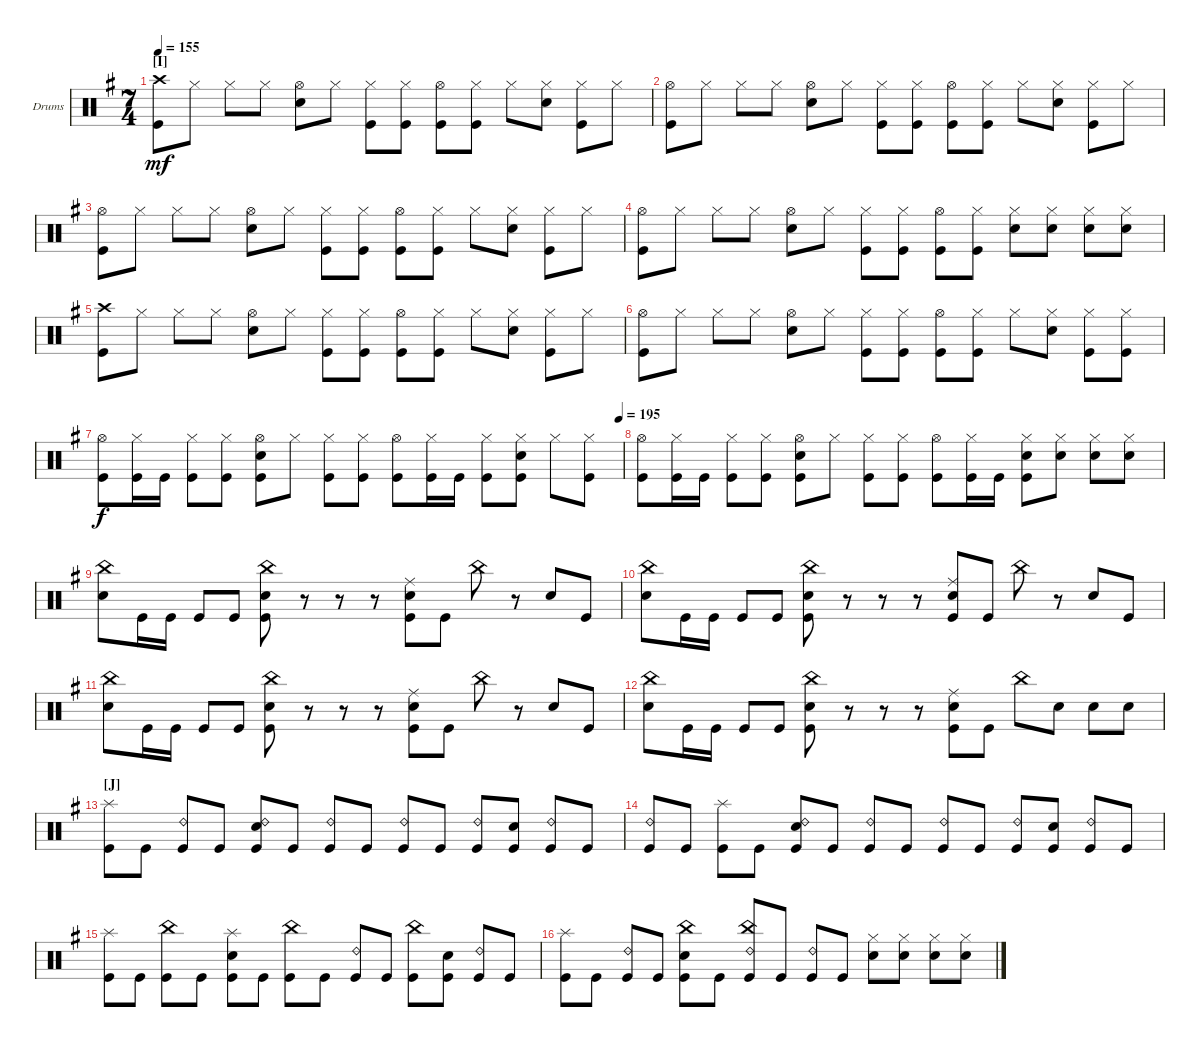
\defaultSystemsLayout 4
\bracketExtendMode groupsimilarinstruments
\firstSystemTrackNameOrientation horizontal
\otherSystemsTrackNameOrientation horizontal
\track ("Drumkit" "Drums") {instrument percussion}
\staff {score}
\articulation defaults
\ts (7 4)
\section ("I" "")
\tempo 155
\clef neutral
\ks eminor
("Crash high (hit)" "Kick (hit)").8{dy mf} "Hi-Hat (closed)".8 "Hi-Hat (closed)".8 "Hi-Hat (closed)".8 ("Hi-Hat (open)" "Snare (hit) 2").8 "Hi-Hat (closed)".8 ("Hi-Hat (closed)" "Kick (hit)").8 ("Hi-Hat (closed)" "Kick (hit)").8 ("Hi-Hat (open)" "Kick (hit)").8 ("Hi-Hat (closed)" "Kick (hit)").8 "Hi-Hat (closed)".8 ("Hi-Hat (closed)" "Snare (hit) 2").8 ("Hi-Hat (closed)" "Kick (hit)").8 "Hi-Hat (closed)".8 |
("Kick (hit)" "Hi-Hat (open)").8 "Hi-Hat (closed)".8 "Hi-Hat (closed)".8 "Hi-Hat (closed)".8 ("Hi-Hat (open)" "Snare (hit) 2").8 "Hi-Hat (closed)".8 ("Hi-Hat (closed)" "Kick (hit)").8 ("Hi-Hat (closed)" "Kick (hit)").8 ("Hi-Hat (open)" "Kick (hit)").8 ("Hi-Hat (closed)" "Kick (hit)").8 "Hi-Hat (closed)".8 ("Hi-Hat (closed)" "Snare (hit) 2").8 ("Hi-Hat (closed)" "Kick (hit)").8 "Hi-Hat (closed)".8 |
("Kick (hit)" "Hi-Hat (open)").8 "Hi-Hat (closed)".8 "Hi-Hat (closed)".8 "Hi-Hat (closed)".8 ("Hi-Hat (open)" "Snare (hit) 2").8 "Hi-Hat (closed)".8 ("Hi-Hat (closed)" "Kick (hit)").8 ("Hi-Hat (closed)" "Kick (hit)").8 ("Hi-Hat (open)" "Kick (hit)").8 ("Hi-Hat (closed)" "Kick (hit)").8 "Hi-Hat (closed)".8 ("Hi-Hat (closed)" "Snare (hit) 2").8 ("Hi-Hat (closed)" "Kick (hit)").8 "Hi-Hat (closed)".8 |
("Kick (hit)" "Hi-Hat (open)").8 "Hi-Hat (closed)".8 "Hi-Hat (closed)".8 "Hi-Hat (closed)".8 ("Hi-Hat (open)" "Snare (hit) 2").8 "Hi-Hat (closed)".8 ("Hi-Hat (closed)" "Kick (hit)").8 ("Hi-Hat (closed)" "Kick (hit)").8 ("Hi-Hat (open)" "Kick (hit)").8 ("Hi-Hat (closed)" "Kick (hit)").8 ("Hi-Hat (closed)" "Snare (hit) 2").8 ("Hi-Hat (closed)" "Snare (hit) 2").8 ("Hi-Hat (closed)" "Snare (hit) 2").8 ("Hi-Hat (closed)" "Snare (hit) 2").8 |
("Crash high (hit)" "Kick (hit)").8 "Hi-Hat (closed)".8 "Hi-Hat (closed)".8 "Hi-Hat (closed)".8 ("Hi-Hat (open)" "Snare (hit) 2").8 "Hi-Hat (closed)".8 ("Hi-Hat (closed)" "Kick (hit)").8 ("Hi-Hat (closed)" "Kick (hit)").8 ("Hi-Hat (open)" "Kick (hit)").8 ("Hi-Hat (closed)" "Kick (hit)").8 "Hi-Hat (closed)".8 ("Hi-Hat (closed)" "Snare (hit) 2").8 ("Hi-Hat (closed)" "Kick (hit)").8 "Hi-Hat (closed)".8 |
("Kick (hit)" "Hi-Hat (open)").8 "Hi-Hat (closed)".8 "Hi-Hat (closed)".8 "Hi-Hat (closed)".8 ("Hi-Hat (open)" "Snare (hit) 2").8 "Hi-Hat (closed)".8 ("Hi-Hat (closed)" "Kick (hit)").8 ("Hi-Hat (closed)" "Kick (hit)").8 ("Hi-Hat (open)" "Kick (hit)").8 ("Hi-Hat (closed)" "Kick (hit)").8 "Hi-Hat (closed)".8 ("Hi-Hat (closed)" "Snare (hit) 2").8 ("Hi-Hat (closed)" "Kick (hit)").8 ("Hi-Hat (closed)" "Kick (hit)").8 |
\tempo (195 0.99375)
("Kick (hit)" "Hi-Hat (open)").8{dy f} ("Kick (hit)" "Hi-Hat (closed)").16 "Kick (hit)".16 ("Kick (hit)" "Hi-Hat (closed)").8 ("Kick (hit)" "Hi-Hat (closed)").8 ("Kick (hit)" "Snare (hit) 2" "Hi-Hat (open)").8 "Hi-Hat (closed)".8 ("Kick (hit)" "Hi-Hat (closed)").8 ("Kick (hit)" "Hi-Hat (closed)").8 ("Kick (hit)" "Hi-Hat (open)").8 ("Kick (hit)" "Hi-Hat (closed)").16 "Kick (hit)".16 ("Kick (hit)" "Hi-Hat (closed)").8 ("Kick (hit)" "Snare (hit) 2" "Hi-Hat (closed)").8 "Hi-Hat (closed)".8 ("Kick (hit)" "Hi-Hat (closed)").8 |
("Kick (hit)" "Hi-Hat (open)").8 ("Kick (hit)" "Hi-Hat (closed)").16 "Kick (hit)".16 ("Kick (hit)" "Hi-Hat (closed)").8 ("Kick (hit)" "Hi-Hat (closed)").8 ("Kick (hit)" "Snare (hit) 2" "Hi-Hat (open)").8 "Hi-Hat (closed)".8 ("Kick (hit)" "Hi-Hat (closed)").8 ("Kick (hit)" "Hi-Hat (closed)").8 ("Kick (hit)" "Hi-Hat (open)").8 ("Kick (hit)" "Hi-Hat (closed)").16 "Kick (hit)".16 ("Hi-Hat (closed)" "Snare (hit) 2" "Kick (hit)").8 ("Hi-Hat (closed)" "Snare (hit) 2").8 ("Hi-Hat (closed)" "Snare (hit) 2").8 ("Hi-Hat (closed)" "Snare (hit) 2").8 |
("China (hit)" "Snare (hit) 2").8 "Kick (hit)".16 "Kick (hit)".16 "Kick (hit)".8 "Kick (hit)".8 ("Kick (hit)" "China (hit)" "Snare (hit) 2").8 r.8 r.8 r.8 ("Kick (hit)" "Snare (hit) 2" "Ride (middle)").8 "Kick (hit)".8 "China (hit)".8 r.8 "Snare (hit) 2".8 "Kick (hit)".8 |
("China (hit)" "Snare (hit) 2").8 "Kick (hit)".16 "Kick (hit)".16 "Kick (hit)".8 "Kick (hit)".8 ("Kick (hit)" "China (hit)" "Snare (hit) 2").8 r.8 r.8 r.8 ("Kick (hit)" "Snare (hit) 2" "Ride (middle)").8{beam invert} "Kick (hit)".8 "China (hit)".8 r.8 "Snare (hit) 2".8 "Kick (hit)".8 |
("China (hit)" "Snare (hit) 2").8 "Kick (hit)".16 "Kick (hit)".16 "Kick (hit)".8 "Kick (hit)".8 ("Kick (hit)" "China (hit)" "Snare (hit) 2").8 r.8 r.8 r.8 ("Kick (hit)" "Snare (hit) 2" "Ride (middle)").8 "Kick (hit)".8 "China (hit)".8 r.8 "Snare (hit) 2".8 "Kick (hit)".8 |
("China (hit)" "Snare (hit) 2").8 "Kick (hit)".16 "Kick (hit)".16 "Kick (hit)".8 "Kick (hit)".8 ("Kick (hit)" "China (hit)" "Snare (hit) 2").8 r.8 r.8 r.8 ("Kick (hit)" "Snare (hit) 2" "Ride (middle)").8 "Kick (hit)".8 "China (hit)".8 "Snare (hit) 2".8 "Snare (hit) 2".8 "Snare (hit) 2".8 |
\section ("J" "")
("Kick (hit)" "Splash (hit)").8 "Kick (hit)".8 ("Kick (hit)" "Ride (bell) 2").8 "Kick (hit)".8 ("Kick (hit)" "Snare (hit) 2" "Ride (bell) 2").8 "Kick (hit)".8 ("Kick (hit)" "Ride (bell) 2").8 "Kick (hit)".8 ("Kick (hit)" "Ride (bell) 2").8 "Kick (hit)".8 ("Kick (hit)" "Ride (bell) 2").8 ("Kick (hit)" "Snare (hit) 2").8 ("Kick (hit)" "Ride (bell) 2").8 "Kick (hit)".8 |
("Kick (hit)" "Ride (bell) 2").8 "Kick (hit)".8 ("Kick (hit)" "Splash (hit)").8 "Kick (hit)".8 ("Kick (hit)" "Snare (hit) 2" "Ride (bell) 2").8 "Kick (hit)".8 ("Kick (hit)" "Ride (bell) 2").8 "Kick (hit)".8 ("Kick (hit)" "Ride (bell) 2").8 "Kick (hit)".8 ("Kick (hit)" "Ride (bell) 2").8 ("Kick (hit)" "Snare (hit) 2").8 ("Kick (hit)" "Ride (bell) 2").8 "Kick (hit)".8 |
("Kick (hit)" "Splash (hit)").8 "Kick (hit)".8 ("Kick (hit)" "China (hit)").8 "Kick (hit)".8 ("Kick (hit)" "Snare (hit) 2" "Splash (hit)").8 "Kick (hit)".8 ("Kick (hit)" "China (hit)").8 "Kick (hit)".8 ("Kick (hit)" "Ride (bell) 2").8 "Kick (hit)".8 ("Kick (hit)" "China (hit)").8 ("Kick (hit)" "Snare (hit) 2").8 ("Kick (hit)" "Ride (bell) 2").8 "Kick (hit)".8 |
("Kick (hit)" "Splash (hit)").8 "Kick (hit)".8 ("Kick (hit)" "Ride (bell) 2").8 "Kick (hit)".8 ("Kick (hit)" "Snare (hit) 2" "China (hit)").8 "Kick (hit)".8 ("Kick (hit)" "Ride (bell) 2" "China (hit)").8 "Kick (hit)".8 ("Kick (hit)" "Ride (bell) 2").8 "Kick (hit)".8 ("Hi-Hat (closed)" "Snare (hit) 2").8 ("Hi-Hat (closed)" "Snare (hit) 2").8 ("Hi-Hat (closed)" "Snare (hit) 2").8 ("Hi-Hat (closed)" "Snare (hit) 2").8
